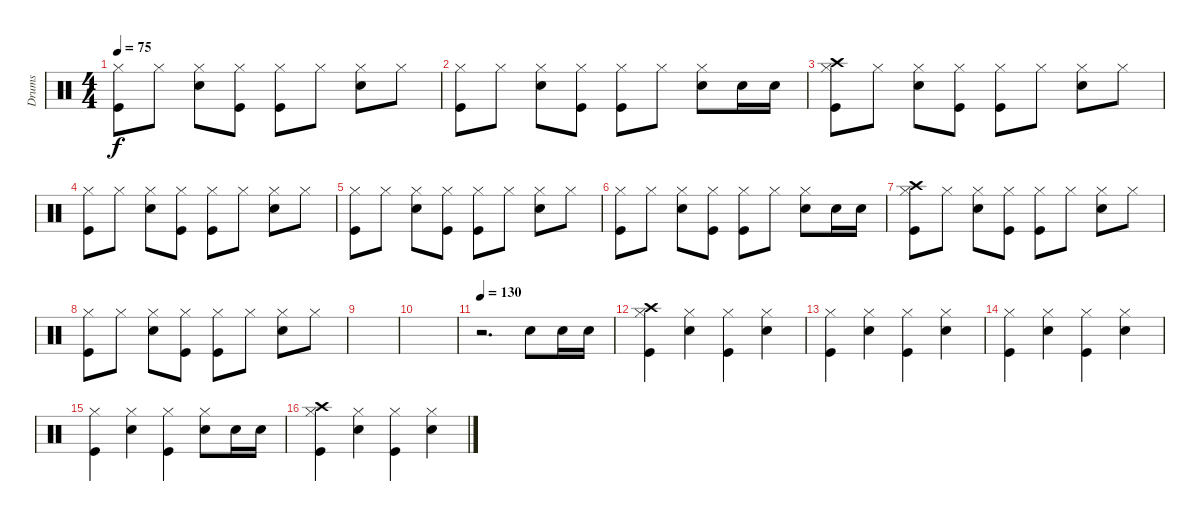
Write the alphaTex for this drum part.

\track ("Drums" "Drums") {instrument percussion}
\staff {score}
\articulation defaults
\ts (4 4)
\tempo 75
\clef neutral
\ks c
("Hi-Hat (closed)" "Kick (hit)").8{dy f} "Hi-Hat (closed)".8 ("Hi-Hat (closed)" "Snare (hit) 2").8 ("Hi-Hat (closed)" "Kick (hit)").8 ("Hi-Hat (closed)" "Kick (hit)").8 "Hi-Hat (closed)".8 ("Hi-Hat (closed)" "Snare (hit) 2").8 "Hi-Hat (closed)".8 |
("Hi-Hat (closed)" "Kick (hit)").8 "Hi-Hat (closed)".8 ("Hi-Hat (closed)" "Snare (hit) 2").8 ("Hi-Hat (closed)" "Kick (hit)").8 ("Hi-Hat (closed)" "Kick (hit)").8 "Hi-Hat (closed)".8 ("Hi-Hat (closed)" "Snare (hit) 2").8 "Snare (hit) 2".16 "Snare (hit) 2".16 |
("Crash high (hit)" "Hi-Hat (closed)" "Kick (hit)").8 "Hi-Hat (closed)".8 ("Hi-Hat (closed)" "Snare (hit) 2").8 ("Hi-Hat (closed)" "Kick (hit)").8 ("Hi-Hat (closed)" "Kick (hit)").8 "Hi-Hat (closed)".8 ("Hi-Hat (closed)" "Snare (hit) 2").8 "Hi-Hat (closed)".8 |
("Hi-Hat (closed)" "Kick (hit)").8 "Hi-Hat (closed)".8 ("Hi-Hat (closed)" "Snare (hit) 2").8 ("Hi-Hat (closed)" "Kick (hit)").8 ("Hi-Hat (closed)" "Kick (hit)").8 "Hi-Hat (closed)".8 ("Hi-Hat (closed)" "Snare (hit) 2").8 "Hi-Hat (closed)".8 |
("Hi-Hat (closed)" "Kick (hit)").8 "Hi-Hat (closed)".8 ("Hi-Hat (closed)" "Snare (hit) 2").8 ("Hi-Hat (closed)" "Kick (hit)").8 ("Hi-Hat (closed)" "Kick (hit)").8 "Hi-Hat (closed)".8 ("Hi-Hat (closed)" "Snare (hit) 2").8 "Hi-Hat (closed)".8 |
("Hi-Hat (closed)" "Kick (hit)").8 "Hi-Hat (closed)".8 ("Hi-Hat (closed)" "Snare (hit) 2").8 ("Hi-Hat (closed)" "Kick (hit)").8 ("Hi-Hat (closed)" "Kick (hit)").8 "Hi-Hat (closed)".8 ("Hi-Hat (closed)" "Snare (hit) 2").8 "Snare (hit) 2".16 "Snare (hit) 2".16 |
("Crash high (hit)" "Hi-Hat (closed)" "Kick (hit)").8 "Hi-Hat (closed)".8 ("Hi-Hat (closed)" "Snare (hit) 2").8 ("Hi-Hat (closed)" "Kick (hit)").8 ("Hi-Hat (closed)" "Kick (hit)").8 "Hi-Hat (closed)".8 ("Hi-Hat (closed)" "Snare (hit) 2").8 "Hi-Hat (closed)".8 |
("Hi-Hat (closed)" "Kick (hit)").8 "Hi-Hat (closed)".8 ("Hi-Hat (closed)" "Snare (hit) 2").8 ("Hi-Hat (closed)" "Kick (hit)").8 ("Hi-Hat (closed)" "Kick (hit)").8 "Hi-Hat (closed)".8 ("Hi-Hat (closed)" "Snare (hit) 2").8 "Hi-Hat (closed)".8 |
|
|
\tempo 130
r.2{d} "Snare (hit) 2".8 "Snare (hit) 2".16 "Snare (hit) 2".16 |
("Crash high (hit)" "Hi-Hat (closed)" "Kick (hit)").4 ("Hi-Hat (closed)" "Snare (hit) 2").4 ("Hi-Hat (closed)" "Kick (hit)").4 ("Hi-Hat (closed)" "Snare (hit) 2").4 |
("Hi-Hat (closed)" "Kick (hit)").4 ("Hi-Hat (closed)" "Snare (hit) 2").4 ("Hi-Hat (closed)" "Kick (hit)").4 ("Hi-Hat (closed)" "Snare (hit) 2").4 |
("Hi-Hat (closed)" "Kick (hit)").4 ("Hi-Hat (closed)" "Snare (hit) 2").4 ("Hi-Hat (closed)" "Kick (hit)").4 ("Hi-Hat (closed)" "Snare (hit) 2").4 |
("Hi-Hat (closed)" "Kick (hit)").4 ("Hi-Hat (closed)" "Snare (hit) 2").4 ("Hi-Hat (closed)" "Kick (hit)").4 ("Hi-Hat (closed)" "Snare (hit) 2").8 "Snare (hit) 2".16 "Snare (hit) 2".16 |
("Crash high (hit)" "Hi-Hat (closed)" "Kick (hit)").4 ("Hi-Hat (closed)" "Snare (hit) 2").4 ("Hi-Hat (closed)" "Kick (hit)").4 ("Hi-Hat (closed)" "Snare (hit) 2").4
